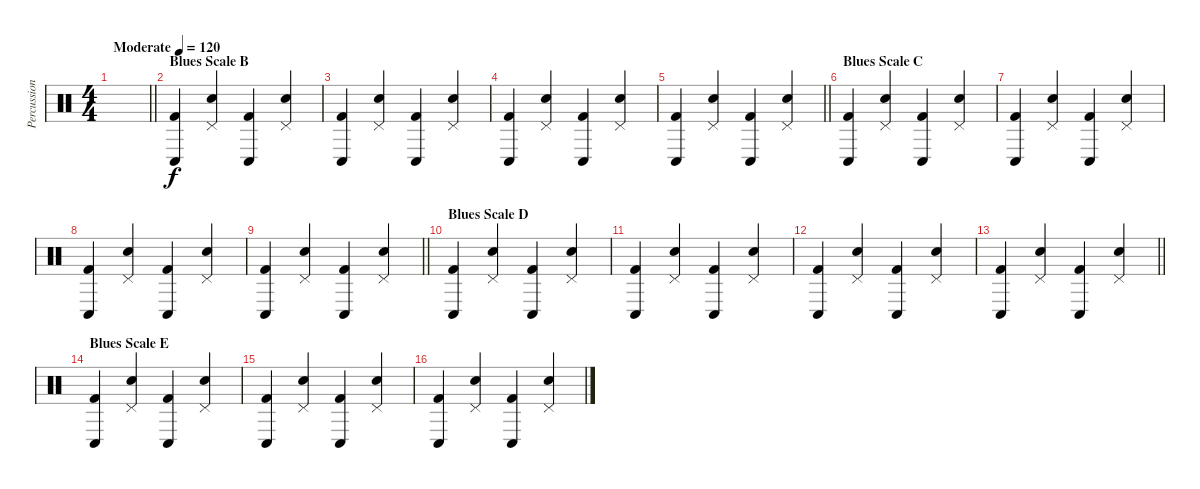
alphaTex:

\track ("Percussion" "Percussion") {instrument percussion}
\staff {score}
\articulation defaults
\ts (4 4)
\tempo (120 "Moderate")
\clef neutral
\barLineRight lightlight
\ks c
|
\section ("" "Blues Scale B")
("Kick (hit) 2" "Conga low (hit)").4 ("Snare (hit) 2" "Pedal Hi-Hat (hit)").4 ("Kick (hit) 2" "Conga low (hit)").4 ("Snare (hit) 2" "Pedal Hi-Hat (hit)").4 |
("Kick (hit) 2" "Conga low (hit)").4 ("Snare (hit) 2" "Pedal Hi-Hat (hit)").4 ("Kick (hit) 2" "Conga low (hit)").4 ("Snare (hit) 2" "Pedal Hi-Hat (hit)").4 |
("Kick (hit) 2" "Conga low (hit)").4 ("Snare (hit) 2" "Pedal Hi-Hat (hit)").4 ("Kick (hit) 2" "Conga low (hit)").4 ("Snare (hit) 2" "Pedal Hi-Hat (hit)").4 |
\barLineRight lightlight
("Kick (hit) 2" "Conga low (hit)").4 ("Snare (hit) 2" "Pedal Hi-Hat (hit)").4 ("Kick (hit) 2" "Conga low (hit)").4 ("Snare (hit) 2" "Pedal Hi-Hat (hit)").4 |
\section ("" "Blues Scale C")
("Kick (hit) 2" "Conga low (hit)").4 ("Snare (hit) 2" "Pedal Hi-Hat (hit)").4 ("Kick (hit) 2" "Conga low (hit)").4 ("Snare (hit) 2" "Pedal Hi-Hat (hit)").4 |
("Kick (hit) 2" "Conga low (hit)").4 ("Snare (hit) 2" "Pedal Hi-Hat (hit)").4 ("Kick (hit) 2" "Conga low (hit)").4 ("Snare (hit) 2" "Pedal Hi-Hat (hit)").4 |
("Kick (hit) 2" "Conga low (hit)").4 ("Snare (hit) 2" "Pedal Hi-Hat (hit)").4 ("Kick (hit) 2" "Conga low (hit)").4 ("Snare (hit) 2" "Pedal Hi-Hat (hit)").4 |
\barLineRight lightlight
("Kick (hit) 2" "Conga low (hit)").4 ("Snare (hit) 2" "Pedal Hi-Hat (hit)").4 ("Kick (hit) 2" "Conga low (hit)").4 ("Snare (hit) 2" "Pedal Hi-Hat (hit)").4 |
\section ("" "Blues Scale D")
("Kick (hit) 2" "Conga low (hit)").4 ("Snare (hit) 2" "Pedal Hi-Hat (hit)").4 ("Kick (hit) 2" "Conga low (hit)").4 ("Snare (hit) 2" "Pedal Hi-Hat (hit)").4 |
("Kick (hit) 2" "Conga low (hit)").4 ("Snare (hit) 2" "Pedal Hi-Hat (hit)").4 ("Kick (hit) 2" "Conga low (hit)").4 ("Snare (hit) 2" "Pedal Hi-Hat (hit)").4 |
("Kick (hit) 2" "Conga low (hit)").4 ("Snare (hit) 2" "Pedal Hi-Hat (hit)").4 ("Kick (hit) 2" "Conga low (hit)").4 ("Snare (hit) 2" "Pedal Hi-Hat (hit)").4 |
\barLineRight lightlight
("Kick (hit) 2" "Conga low (hit)").4 ("Snare (hit) 2" "Pedal Hi-Hat (hit)").4 ("Kick (hit) 2" "Conga low (hit)").4 ("Snare (hit) 2" "Pedal Hi-Hat (hit)").4 |
\section ("" "Blues Scale E")
("Kick (hit) 2" "Conga low (hit)").4 ("Snare (hit) 2" "Pedal Hi-Hat (hit)").4 ("Kick (hit) 2" "Conga low (hit)").4 ("Snare (hit) 2" "Pedal Hi-Hat (hit)").4 |
("Kick (hit) 2" "Conga low (hit)").4 ("Snare (hit) 2" "Pedal Hi-Hat (hit)").4 ("Kick (hit) 2" "Conga low (hit)").4 ("Snare (hit) 2" "Pedal Hi-Hat (hit)").4 |
("Kick (hit) 2" "Conga low (hit)").4 ("Snare (hit) 2" "Pedal Hi-Hat (hit)").4 ("Kick (hit) 2" "Conga low (hit)").4 ("Snare (hit) 2" "Pedal Hi-Hat (hit)").4
